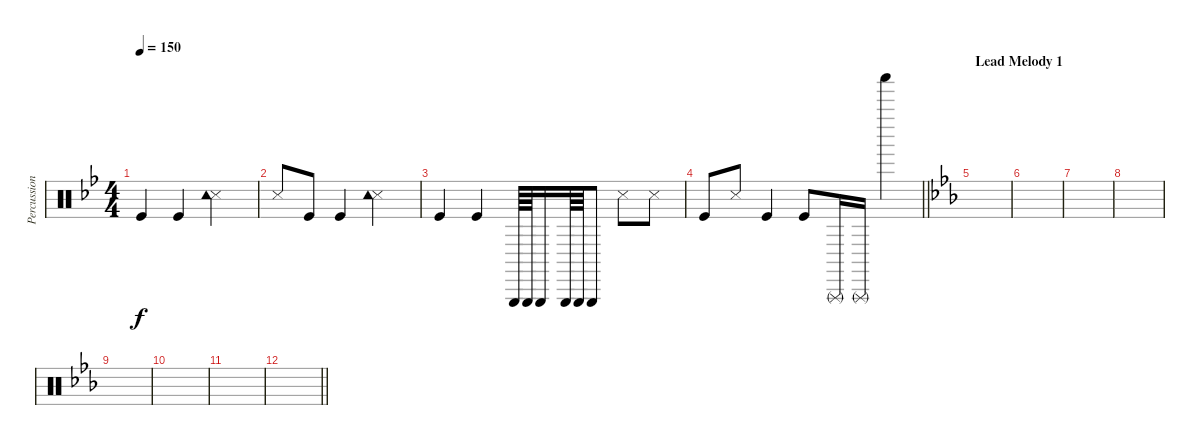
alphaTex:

\track ("Percussion" "Percussion") {instrument percussion}
\staff {score}
\articulation defaults
\ts (4 4)
\tempo 150
\clef neutral
\ks gminor "Kick (hit)".4{dy f} "Kick (hit)".4
("Snare (side stick) 3" "Tambourine (hit)").2 |
"Snare (side stick) 3".8 "Kick (hit)".8 "Kick (hit)".4 ("Snare (side stick) 3" "Tambourine (hit)").2 |
"Kick (hit)".4 "Kick (hit)".4 "Triangle (hit)".64 "Triangle (hit)".64 "Triangle (hit)".16 "Triangle (hit)".64 "Triangle (hit)".64 "Triangle (hit)".8 "Snare (side stick) 3".8 "Snare (side stick) 3".8 |
\barLineRight lightlight "Kick (hit)".8 "Snare (side stick) 3".8 "Kick (hit)".4 "Kick (hit)".8 "Triangle (rnute)".16 "Triangle (rnute)".16 "Shaker (hit)".4
|
\section ("" "Lead Melody 1")
\ks cminor
|
|
|
|
|
|
|
\barLineRight lightlight
